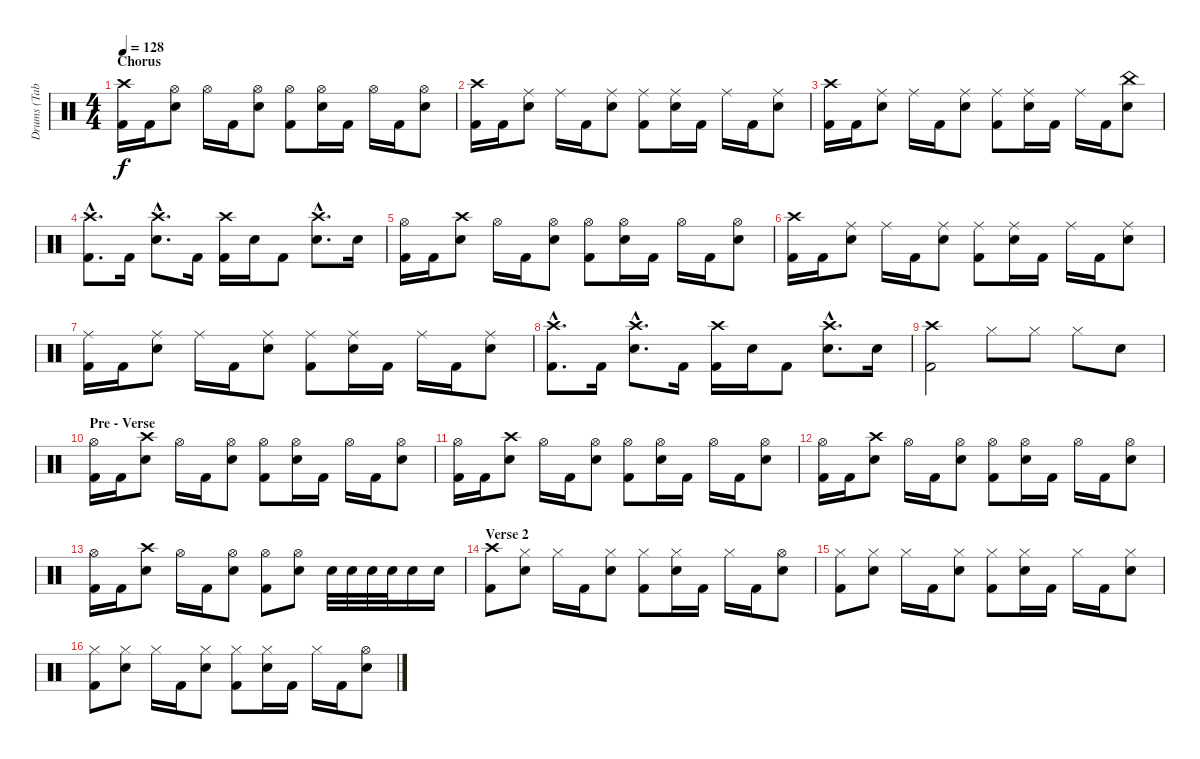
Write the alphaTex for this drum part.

\track ("Drums (Tabbed by: Leonardo_codev)" "Drums (Tab") {instrument percussion}
\staff {score}
\articulation defaults
\ts (4 4)
\section ("" "Chorus")
\tempo 128
\clef neutral
\ks c
("Crash high (hit)" "Kick (hit) 2").16{dy f} "Kick (hit) 2".16 ("Hi-Hat (open)" "Electric Snare (hit)").8 "Hi-Hat (open)".16 "Kick (hit) 2".16 ("Hi-Hat (open)" "Electric Snare (hit)").8 ("Hi-Hat (open)" "Kick (hit) 2").8 ("Hi-Hat (open)" "Electric Snare (hit)").16 "Kick (hit) 2".16 "Hi-Hat (open)".16 "Kick (hit) 2".16 ("Hi-Hat (open)" "Electric Snare (hit)").8 |
("Crash high (hit)" "Kick (hit) 2").16 "Kick (hit) 2".16 ("Ride (middle)" "Electric Snare (hit)").8 "Ride (middle)".16 "Kick (hit) 2".16 ("Ride (middle)" "Electric Snare (hit)").8 ("Ride (middle)" "Kick (hit) 2").8 ("Ride (middle)" "Electric Snare (hit)").16 "Kick (hit) 2".16 "Ride (middle)".16 "Kick (hit) 2".16 ("Ride (middle)" "Electric Snare (hit)").8 |
("Crash high (hit)" "Kick (hit) 2").16 "Kick (hit) 2".16 ("Ride (middle)" "Electric Snare (hit)").8 "Ride (middle)".16 "Kick (hit) 2".16 ("Ride (middle)" "Electric Snare (hit)").8 ("Ride (middle)" "Kick (hit) 2").8 ("Ride (middle)" "Electric Snare (hit)").16 "Kick (hit) 2".16 "Ride (middle)".16 "Kick (hit) 2".16 ("China (hit)" "Electric Snare (hit)").8 |
("Crash high (hit)"{hac} "Kick (hit) 2"{hac}).8{d} "Kick (hit) 2".16 ("Crash high (hit)"{hac} "Electric Snare (hit)"{hac}).8{d} "Kick (hit) 2".16 ("Crash high (hit)" "Kick (hit) 2").16 "Electric Snare (hit)".16 "Kick (hit) 2".8 ("Crash high (hit)"{hac} "Electric Snare (hit)"{hac}).8{d} "Electric Snare (hit)".16 |
("Hi-Hat (open)" "Kick (hit) 2").16 "Kick (hit) 2".16 ("Crash high (hit)" "Electric Snare (hit)").8 "Hi-Hat (open)".16 "Kick (hit) 2".16 ("Hi-Hat (open)" "Electric Snare (hit)").8 ("Hi-Hat (open)" "Kick (hit) 2").8 ("Hi-Hat (open)" "Electric Snare (hit)").16 "Kick (hit) 2".16 "Hi-Hat (open)".16 "Kick (hit) 2".16 ("Hi-Hat (open)" "Electric Snare (hit)").8 |
("Crash high (hit)" "Kick (hit) 2").16 "Kick (hit) 2".16 ("Ride (middle)" "Electric Snare (hit)").8 "Ride (middle)".16 "Kick (hit) 2".16 ("Ride (middle)" "Electric Snare (hit)").8 ("Ride (middle)" "Kick (hit) 2").8 ("Ride (middle)" "Electric Snare (hit)").16 "Kick (hit) 2".16 "Ride (middle)".16 "Kick (hit) 2".16 ("Ride (middle)" "Electric Snare (hit)").8 |
("Ride (middle)" "Kick (hit) 2").16 "Kick (hit) 2".16 ("Ride (middle)" "Electric Snare (hit)").8 "Ride (middle)".16 "Kick (hit) 2".16 ("Ride (middle)" "Electric Snare (hit)").8 ("Ride (middle)" "Kick (hit) 2").8 ("Ride (middle)" "Electric Snare (hit)").16 "Kick (hit) 2".16 "Ride (middle)".16 "Kick (hit) 2".16 ("Ride (middle)" "Electric Snare (hit)").8 |
("Crash high (hit)"{hac} "Kick (hit) 2"{hac}).8{d} "Kick (hit) 2".16 ("Crash high (hit)"{hac} "Electric Snare (hit)"{hac}).8{d} "Kick (hit) 2".16 ("Crash high (hit)" "Kick (hit) 2").16 "Electric Snare (hit)".16 "Kick (hit) 2".8 ("Crash high (hit)"{hac} "Electric Snare (hit)"{hac}).8{d} "Electric Snare (hit)".16 |
("Crash high (hit)" "Kick (hit) 2").2 "Hi-Hat (closed)".8 "Hi-Hat (closed)".8 "Hi-Hat (closed)".8 "Electric Snare (hit)".8 |
\section ("" "Pre - Verse")
("Hi-Hat (open)" "Kick (hit) 2").16 "Kick (hit) 2".16 ("Crash high (hit)" "Electric Snare (hit)").8 "Hi-Hat (open)".16 "Kick (hit) 2".16 ("Hi-Hat (open)" "Electric Snare (hit)").8 ("Hi-Hat (open)" "Kick (hit) 2").8 ("Hi-Hat (open)" "Electric Snare (hit)").16 "Kick (hit) 2".16 "Hi-Hat (open)".16 "Kick (hit) 2".16 ("Hi-Hat (open)" "Electric Snare (hit)").8 |
("Hi-Hat (open)" "Kick (hit) 2").16 "Kick (hit) 2".16 ("Crash high (hit)" "Electric Snare (hit)").8 "Hi-Hat (open)".16 "Kick (hit) 2".16 ("Hi-Hat (open)" "Electric Snare (hit)").8 ("Hi-Hat (open)" "Kick (hit) 2").8 ("Hi-Hat (open)" "Electric Snare (hit)").16 "Kick (hit) 2".16 "Hi-Hat (open)".16 "Kick (hit) 2".16 ("Hi-Hat (open)" "Electric Snare (hit)").8 |
("Hi-Hat (open)" "Kick (hit) 2").16 "Kick (hit) 2".16 ("Crash high (hit)" "Electric Snare (hit)").8 "Hi-Hat (open)".16 "Kick (hit) 2".16 ("Hi-Hat (open)" "Electric Snare (hit)").8 ("Hi-Hat (open)" "Kick (hit) 2").8 ("Hi-Hat (open)" "Electric Snare (hit)").16 "Kick (hit) 2".16 "Hi-Hat (open)".16 "Kick (hit) 2".16 ("Hi-Hat (open)" "Electric Snare (hit)").8 |
("Hi-Hat (open)" "Kick (hit) 2").16 "Kick (hit) 2".16 ("Crash high (hit)" "Electric Snare (hit)").8 "Hi-Hat (open)".16 "Kick (hit) 2".16 ("Hi-Hat (open)" "Electric Snare (hit)").8 ("Hi-Hat (open)" "Kick (hit) 2").8 ("Hi-Hat (open)" "Electric Snare (hit)").8 "Electric Snare (hit)".32 "Electric Snare (hit)".32 "Electric Snare (hit)".32 "Electric Snare (hit)".32 "Electric Snare (hit)".16 "Electric Snare (hit)".16 |
\section ("" "Verse 2")
("Crash high (hit)" "Kick (hit) 2").8 ("Hi-Hat (closed)" "Electric Snare (hit)").8 "Hi-Hat (closed)".16 "Kick (hit) 2".16 ("Hi-Hat (closed)" "Electric Snare (hit)").8 ("Hi-Hat (closed)" "Kick (hit) 2").8 ("Hi-Hat (closed)" "Electric Snare (hit)").16 "Kick (hit) 2".16 "Hi-Hat (closed)".16 "Kick (hit) 2".16 ("Hi-Hat (open)" "Electric Snare (hit)").8 |
("Hi-Hat (closed)" "Kick (hit) 2").8 ("Hi-Hat (closed)" "Electric Snare (hit)").8 "Hi-Hat (closed)".16 "Kick (hit) 2".16 ("Hi-Hat (closed)" "Electric Snare (hit)").8 ("Hi-Hat (closed)" "Kick (hit) 2").8 ("Hi-Hat (closed)" "Electric Snare (hit)").16 "Kick (hit) 2".16 "Hi-Hat (closed)".16 "Kick (hit) 2".16 ("Hi-Hat (closed)" "Electric Snare (hit)").8 |
("Hi-Hat (closed)" "Kick (hit) 2").8 ("Hi-Hat (closed)" "Electric Snare (hit)").8 "Hi-Hat (closed)".16 "Kick (hit) 2".16 ("Hi-Hat (closed)" "Electric Snare (hit)").8 ("Hi-Hat (closed)" "Kick (hit) 2").8 ("Hi-Hat (closed)" "Electric Snare (hit)").16 "Kick (hit) 2".16 "Hi-Hat (closed)".16 "Kick (hit) 2".16 ("Hi-Hat (open)" "Electric Snare (hit)").8
